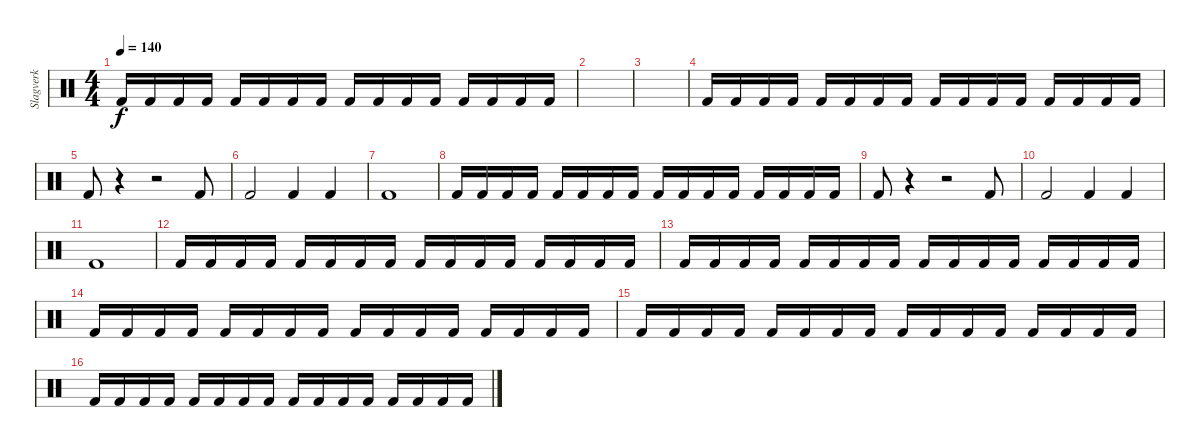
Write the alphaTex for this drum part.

\track ("Slagverk" "Slagverk") {instrument percussion}
\staff {score}
\articulation defaults
\ts (4 4)
\tempo 140
\clef neutral
\ks c "Kick (hit) 2".16{dy f} "Kick (hit) 2".16 "Kick (hit) 2".16 "Kick (hit) 2".16 "Kick (hit) 2".16 "Kick (hit) 2".16 "Kick (hit) 2".16 "Kick (hit) 2".16 "Kick (hit) 2".16 "Kick (hit) 2".16 "Kick (hit) 2".16 "Kick (hit) 2".16 "Kick (hit) 2".16 "Kick (hit) 2".16 "Kick (hit) 2".16 "Kick (hit) 2".16
|
|
|
"Kick (hit) 2".16 "Kick (hit) 2".16 "Kick (hit) 2".16 "Kick (hit) 2".16 "Kick (hit) 2".16 "Kick (hit) 2".16 "Kick (hit) 2".16 "Kick (hit) 2".16 "Kick (hit) 2".16 "Kick (hit) 2".16 "Kick (hit) 2".16 "Kick (hit) 2".16 "Kick (hit) 2".16 "Kick (hit) 2".16 "Kick (hit) 2".16 "Kick (hit) 2".16 |
"Kick (hit) 2".8 r.4 r.2 "Kick (hit) 2".8 |
"Kick (hit) 2".2 "Kick (hit) 2".4 "Kick (hit) 2".4 |
"Kick (hit) 2".1 |
"Kick (hit) 2".16 "Kick (hit) 2".16 "Kick (hit) 2".16 "Kick (hit) 2".16 "Kick (hit) 2".16 "Kick (hit) 2".16 "Kick (hit) 2".16 "Kick (hit) 2".16 "Kick (hit) 2".16 "Kick (hit) 2".16 "Kick (hit) 2".16 "Kick (hit) 2".16 "Kick (hit) 2".16 "Kick (hit) 2".16 "Kick (hit) 2".16 "Kick (hit) 2".16 |
"Kick (hit) 2".8 r.4 r.2 "Kick (hit) 2".8 |
"Kick (hit) 2".2 "Kick (hit) 2".4 "Kick (hit) 2".4 |
"Kick (hit) 2".1 |
"Kick (hit) 2".16 "Kick (hit) 2".16 "Kick (hit) 2".16 "Kick (hit) 2".16 "Kick (hit) 2".16 "Kick (hit) 2".16 "Kick (hit) 2".16 "Kick (hit) 2".16 "Kick (hit) 2".16 "Kick (hit) 2".16 "Kick (hit) 2".16 "Kick (hit) 2".16 "Kick (hit) 2".16 "Kick (hit) 2".16 "Kick (hit) 2".16 "Kick (hit) 2".16 |
"Kick (hit) 2".16 "Kick (hit) 2".16 "Kick (hit) 2".16 "Kick (hit) 2".16 "Kick (hit) 2".16 "Kick (hit) 2".16 "Kick (hit) 2".16 "Kick (hit) 2".16 "Kick (hit) 2".16 "Kick (hit) 2".16 "Kick (hit) 2".16 "Kick (hit) 2".16 "Kick (hit) 2".16 "Kick (hit) 2".16 "Kick (hit) 2".16 "Kick (hit) 2".16 |
"Kick (hit) 2".16 "Kick (hit) 2".16 "Kick (hit) 2".16 "Kick (hit) 2".16 "Kick (hit) 2".16 "Kick (hit) 2".16 "Kick (hit) 2".16 "Kick (hit) 2".16 "Kick (hit) 2".16 "Kick (hit) 2".16 "Kick (hit) 2".16 "Kick (hit) 2".16 "Kick (hit) 2".16 "Kick (hit) 2".16 "Kick (hit) 2".16 "Kick (hit) 2".16 |
"Kick (hit) 2".16 "Kick (hit) 2".16 "Kick (hit) 2".16 "Kick (hit) 2".16 "Kick (hit) 2".16 "Kick (hit) 2".16 "Kick (hit) 2".16 "Kick (hit) 2".16 "Kick (hit) 2".16 "Kick (hit) 2".16 "Kick (hit) 2".16 "Kick (hit) 2".16 "Kick (hit) 2".16 "Kick (hit) 2".16 "Kick (hit) 2".16 "Kick (hit) 2".16 |
"Kick (hit) 2".16 "Kick (hit) 2".16 "Kick (hit) 2".16 "Kick (hit) 2".16 "Kick (hit) 2".16 "Kick (hit) 2".16 "Kick (hit) 2".16 "Kick (hit) 2".16 "Kick (hit) 2".16 "Kick (hit) 2".16 "Kick (hit) 2".16 "Kick (hit) 2".16 "Kick (hit) 2".16 "Kick (hit) 2".16 "Kick (hit) 2".16 "Kick (hit) 2".16
